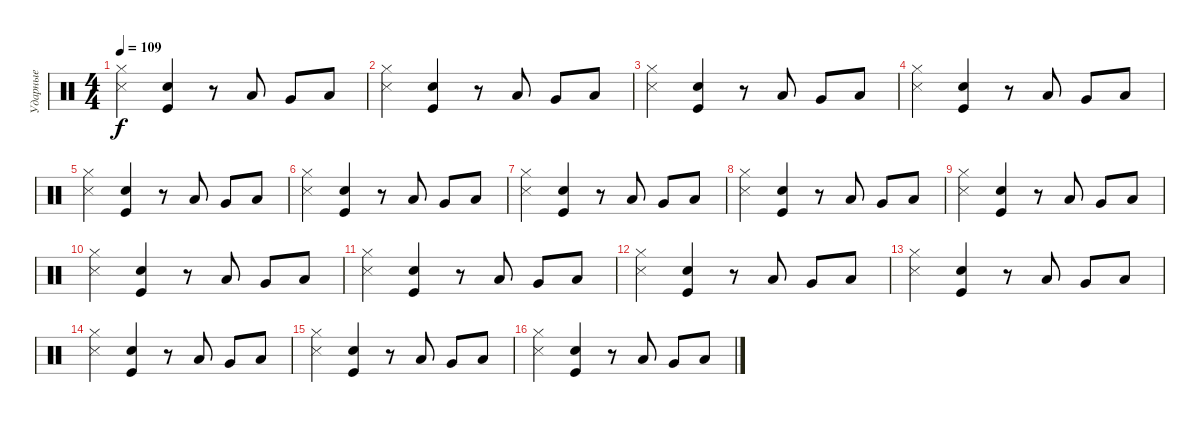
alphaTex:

\track ("Ударные" "Ударные") {instrument percussion}
\staff {score}
\articulation defaults
\ts (4 4)
\tempo 109
\clef neutral
\ks c
("Snare (side stick) 3" "Hi-Hat (closed)").4{dy f} ("Snare (hit) 2" "Kick (hit)").4 r.8 "Low Floor Tom (hit)".8 "Very Low Tom (hit)".8 "Low Floor Tom (hit)".8 |
("Snare (side stick) 3" "Hi-Hat (closed)").4 ("Snare (hit) 2" "Kick (hit)").4 r.8 "Low Floor Tom (hit)".8 "Very Low Tom (hit)".8 "Low Floor Tom (hit)".8 |
("Snare (side stick) 3" "Hi-Hat (closed)").4 ("Snare (hit) 2" "Kick (hit)").4 r.8 "Low Floor Tom (hit)".8 "Very Low Tom (hit)".8 "Low Floor Tom (hit)".8 |
("Snare (side stick) 3" "Hi-Hat (closed)").4 ("Snare (hit) 2" "Kick (hit)").4 r.8 "Low Floor Tom (hit)".8 "Very Low Tom (hit)".8 "Low Floor Tom (hit)".8 |
("Snare (side stick) 3" "Hi-Hat (closed)").4 ("Snare (hit) 2" "Kick (hit)").4 r.8 "Low Floor Tom (hit)".8 "Very Low Tom (hit)".8 "Low Floor Tom (hit)".8 |
("Snare (side stick) 3" "Hi-Hat (closed)").4 ("Snare (hit) 2" "Kick (hit)").4 r.8 "Low Floor Tom (hit)".8 "Very Low Tom (hit)".8 "Low Floor Tom (hit)".8 |
("Snare (side stick) 3" "Hi-Hat (closed)").4 ("Snare (hit) 2" "Kick (hit)").4 r.8 "Low Floor Tom (hit)".8 "Very Low Tom (hit)".8 "Low Floor Tom (hit)".8 |
("Snare (side stick) 3" "Hi-Hat (closed)").4 ("Snare (hit) 2" "Kick (hit)").4 r.8 "Low Floor Tom (hit)".8 "Very Low Tom (hit)".8 "Low Floor Tom (hit)".8 |
("Snare (side stick) 3" "Hi-Hat (closed)").4 ("Snare (hit) 2" "Kick (hit)").4 r.8 "Low Floor Tom (hit)".8 "Very Low Tom (hit)".8 "Low Floor Tom (hit)".8 |
("Snare (side stick) 3" "Hi-Hat (closed)").4 ("Snare (hit) 2" "Kick (hit)").4 r.8 "Low Floor Tom (hit)".8 "Very Low Tom (hit)".8 "Low Floor Tom (hit)".8 |
("Snare (side stick) 3" "Hi-Hat (closed)").4 ("Snare (hit) 2" "Kick (hit)").4 r.8 "Low Floor Tom (hit)".8 "Very Low Tom (hit)".8 "Low Floor Tom (hit)".8 |
("Snare (side stick) 3" "Hi-Hat (closed)").4 ("Snare (hit) 2" "Kick (hit)").4 r.8 "Low Floor Tom (hit)".8 "Very Low Tom (hit)".8 "Low Floor Tom (hit)".8 |
("Snare (side stick) 3" "Hi-Hat (closed)").4 ("Snare (hit) 2" "Kick (hit)").4 r.8 "Low Floor Tom (hit)".8 "Very Low Tom (hit)".8 "Low Floor Tom (hit)".8 |
("Snare (side stick) 3" "Hi-Hat (closed)").4 ("Snare (hit) 2" "Kick (hit)").4 r.8 "Low Floor Tom (hit)".8 "Very Low Tom (hit)".8 "Low Floor Tom (hit)".8 |
("Snare (side stick) 3" "Hi-Hat (closed)").4 ("Snare (hit) 2" "Kick (hit)").4 r.8 "Low Floor Tom (hit)".8 "Very Low Tom (hit)".8 "Low Floor Tom (hit)".8 |
("Snare (side stick) 3" "Hi-Hat (closed)").4 ("Snare (hit) 2" "Kick (hit)").4 r.8 "Low Floor Tom (hit)".8 "Very Low Tom (hit)".8 "Low Floor Tom (hit)".8
